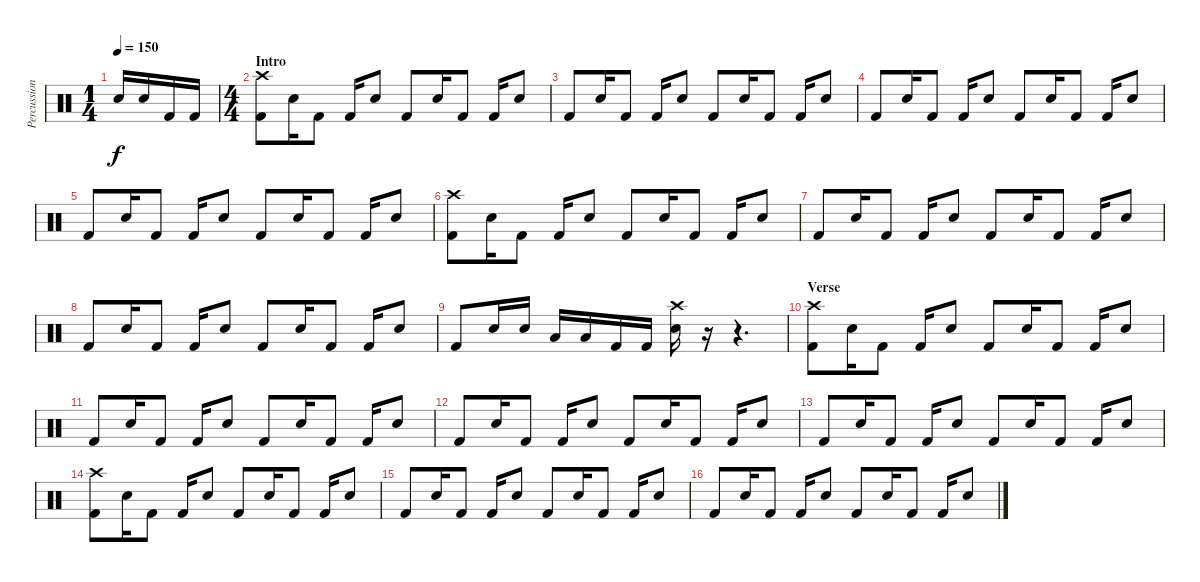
\track ("Percussion" "Percussion") {instrument percussion}
\staff {score}
\articulation defaults
\ts (1 4)
\tempo 150
\clef neutral
\ks c "Snare (hit) 2".16{dy f} "Snare (hit) 2".16 "Kick (hit) 2".16 "Kick (hit) 2".16
|
\ts (4 4)
\section ("" "Intro")
("Crash high (hit)" "Kick (hit) 2").8 "Snare (hit) 2".16 "Kick (hit) 2".8 "Kick (hit) 2".16 "Snare (hit) 2".8 "Kick (hit) 2".8 "Snare (hit) 2".16 "Kick (hit) 2".8 "Kick (hit) 2".16 "Snare (hit) 2".8 |
"Kick (hit) 2".8 "Snare (hit) 2".16 "Kick (hit) 2".8 "Kick (hit) 2".16 "Snare (hit) 2".8 "Kick (hit) 2".8 "Snare (hit) 2".16 "Kick (hit) 2".8 "Kick (hit) 2".16 "Snare (hit) 2".8 |
"Kick (hit) 2".8 "Snare (hit) 2".16 "Kick (hit) 2".8 "Kick (hit) 2".16 "Snare (hit) 2".8 "Kick (hit) 2".8 "Snare (hit) 2".16 "Kick (hit) 2".8 "Kick (hit) 2".16 "Snare (hit) 2".8 |
"Kick (hit) 2".8 "Snare (hit) 2".16 "Kick (hit) 2".8 "Kick (hit) 2".16 "Snare (hit) 2".8 "Kick (hit) 2".8 "Snare (hit) 2".16 "Kick (hit) 2".8 "Kick (hit) 2".16 "Snare (hit) 2".8 |
("Crash high (hit)" "Kick (hit) 2").8 "Snare (hit) 2".16 "Kick (hit) 2".8 "Kick (hit) 2".16 "Snare (hit) 2".8 "Kick (hit) 2".8 "Snare (hit) 2".16 "Kick (hit) 2".8 "Kick (hit) 2".16 "Snare (hit) 2".8 |
"Kick (hit) 2".8 "Snare (hit) 2".16 "Kick (hit) 2".8 "Kick (hit) 2".16 "Snare (hit) 2".8 "Kick (hit) 2".8 "Snare (hit) 2".16 "Kick (hit) 2".8 "Kick (hit) 2".16 "Snare (hit) 2".8 |
"Kick (hit) 2".8 "Snare (hit) 2".16 "Kick (hit) 2".8 "Kick (hit) 2".16 "Snare (hit) 2".8 "Kick (hit) 2".8 "Snare (hit) 2".16 "Kick (hit) 2".8 "Kick (hit) 2".16 "Snare (hit) 2".8 |
"Kick (hit) 2".8 "Snare (hit) 2".16 "Snare (hit) 2".16 "Low Tom (hit)".16 "Low Tom (hit)".16 "Kick (hit) 2".16 "Kick (hit) 2".16 ("Crash high (hit)" "Snare (hit) 2").16 r.16 r.4{d} |
\section ("" "Verse")
("Crash high (hit)" "Kick (hit) 2").8 "Snare (hit) 2".16 "Kick (hit) 2".8 "Kick (hit) 2".16 "Snare (hit) 2".8 "Kick (hit) 2".8 "Snare (hit) 2".16 "Kick (hit) 2".8 "Kick (hit) 2".16 "Snare (hit) 2".8 |
"Kick (hit) 2".8 "Snare (hit) 2".16 "Kick (hit) 2".8 "Kick (hit) 2".16 "Snare (hit) 2".8 "Kick (hit) 2".8 "Snare (hit) 2".16 "Kick (hit) 2".8 "Kick (hit) 2".16 "Snare (hit) 2".8 |
"Kick (hit) 2".8 "Snare (hit) 2".16 "Kick (hit) 2".8 "Kick (hit) 2".16 "Snare (hit) 2".8 "Kick (hit) 2".8 "Snare (hit) 2".16 "Kick (hit) 2".8 "Kick (hit) 2".16 "Snare (hit) 2".8 |
"Kick (hit) 2".8 "Snare (hit) 2".16 "Kick (hit) 2".8 "Kick (hit) 2".16 "Snare (hit) 2".8 "Kick (hit) 2".8 "Snare (hit) 2".16 "Kick (hit) 2".8 "Kick (hit) 2".16 "Snare (hit) 2".8 |
("Crash high (hit)" "Kick (hit) 2").8 "Snare (hit) 2".16 "Kick (hit) 2".8 "Kick (hit) 2".16 "Snare (hit) 2".8 "Kick (hit) 2".8 "Snare (hit) 2".16 "Kick (hit) 2".8 "Kick (hit) 2".16 "Snare (hit) 2".8 |
"Kick (hit) 2".8 "Snare (hit) 2".16 "Kick (hit) 2".8 "Kick (hit) 2".16 "Snare (hit) 2".8 "Kick (hit) 2".8 "Snare (hit) 2".16 "Kick (hit) 2".8 "Kick (hit) 2".16 "Snare (hit) 2".8 |
"Kick (hit) 2".8 "Snare (hit) 2".16 "Kick (hit) 2".8 "Kick (hit) 2".16 "Snare (hit) 2".8 "Kick (hit) 2".8 "Snare (hit) 2".16 "Kick (hit) 2".8 "Kick (hit) 2".16 "Snare (hit) 2".8
